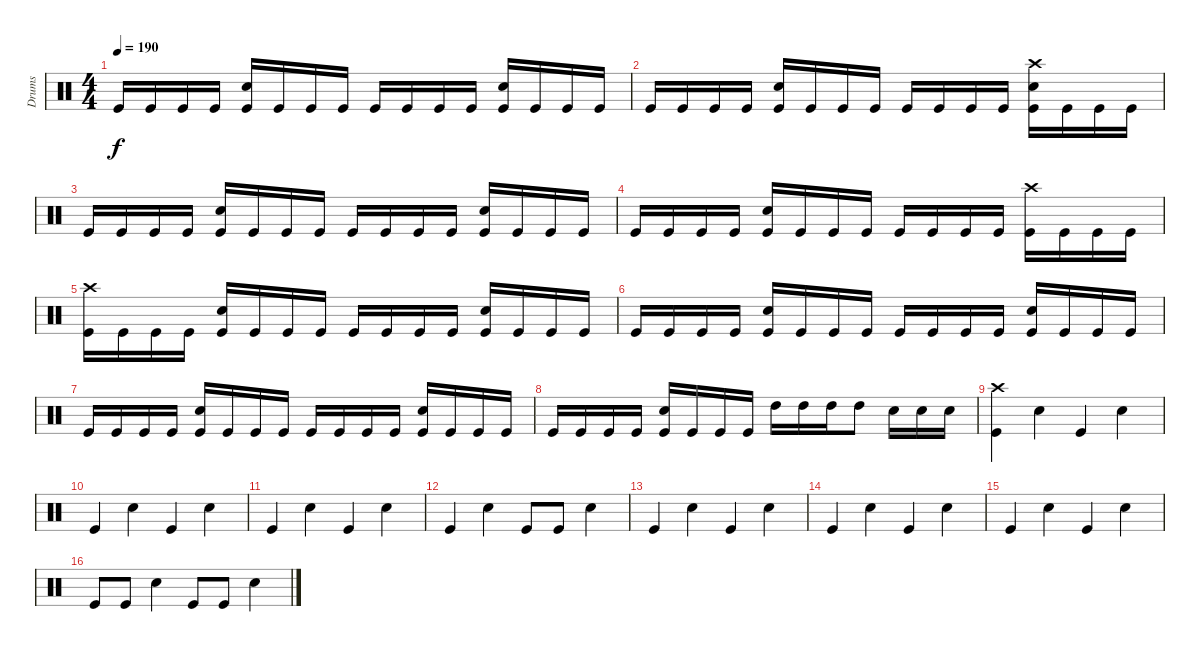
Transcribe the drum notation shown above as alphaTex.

\track ("Drums" "Drums") {instrument percussion}
\staff {score}
\articulation defaults
\ts (4 4)
\tempo 190
\clef neutral
\ks c "Kick (hit)".16{dy f} "Kick (hit)".16 "Kick (hit)".16 "Kick (hit)".16
("Snare (hit) 2" "Kick (hit)").16 "Kick (hit)".16 "Kick (hit)".16 "Kick (hit)".16 "Kick (hit)".16 "Kick (hit)".16 "Kick (hit)".16 "Kick (hit)".16 ("Snare (hit) 2" "Kick (hit)").16 "Kick (hit)".16 "Kick (hit)".16 "Kick (hit)".16 |
"Kick (hit)".16 "Kick (hit)".16 "Kick (hit)".16 "Kick (hit)".16 ("Snare (hit) 2" "Kick (hit)").16 "Kick (hit)".16 "Kick (hit)".16 "Kick (hit)".16 "Kick (hit)".16 "Kick (hit)".16 "Kick (hit)".16 "Kick (hit)".16 ("Crash high (hit)" "Snare (hit) 2" "Kick (hit)").16 "Kick (hit)".16 "Kick (hit)".16 "Kick (hit)".16 |
"Kick (hit)".16 "Kick (hit)".16 "Kick (hit)".16 "Kick (hit)".16 ("Snare (hit) 2" "Kick (hit)").16 "Kick (hit)".16 "Kick (hit)".16 "Kick (hit)".16 "Kick (hit)".16 "Kick (hit)".16 "Kick (hit)".16 "Kick (hit)".16 ("Snare (hit) 2" "Kick (hit)").16 "Kick (hit)".16 "Kick (hit)".16 "Kick (hit)".16 |
"Kick (hit)".16 "Kick (hit)".16 "Kick (hit)".16 "Kick (hit)".16 ("Snare (hit) 2" "Kick (hit)").16 "Kick (hit)".16 "Kick (hit)".16 "Kick (hit)".16 "Kick (hit)".16 "Kick (hit)".16 "Kick (hit)".16 "Kick (hit)".16 ("Crash high (hit)" "Kick (hit)").16 "Kick (hit)".16 "Kick (hit)".16 "Kick (hit)".16 |
("Crash high (hit)" "Kick (hit)").16 "Kick (hit)".16 "Kick (hit)".16 "Kick (hit)".16 ("Snare (hit) 2" "Kick (hit)").16 "Kick (hit)".16 "Kick (hit)".16 "Kick (hit)".16 "Kick (hit)".16 "Kick (hit)".16 "Kick (hit)".16 "Kick (hit)".16 ("Snare (hit) 2" "Kick (hit)").16 "Kick (hit)".16 "Kick (hit)".16 "Kick (hit)".16 |
"Kick (hit)".16 "Kick (hit)".16 "Kick (hit)".16 "Kick (hit)".16 ("Snare (hit) 2" "Kick (hit)").16 "Kick (hit)".16 "Kick (hit)".16 "Kick (hit)".16 "Kick (hit)".16 "Kick (hit)".16 "Kick (hit)".16 "Kick (hit)".16 ("Snare (hit) 2" "Kick (hit)").16 "Kick (hit)".16 "Kick (hit)".16 "Kick (hit)".16 |
"Kick (hit)".16 "Kick (hit)".16 "Kick (hit)".16 "Kick (hit)".16 ("Snare (hit) 2" "Kick (hit)").16 "Kick (hit)".16 "Kick (hit)".16 "Kick (hit)".16 "Kick (hit)".16 "Kick (hit)".16 "Kick (hit)".16 "Kick (hit)".16 ("Snare (hit) 2" "Kick (hit)").16 "Kick (hit)".16 "Kick (hit)".16 "Kick (hit)".16 |
"Kick (hit)".16 "Kick (hit)".16 "Kick (hit)".16 "Kick (hit)".16 ("Snare (hit) 2" "Kick (hit)").16 "Kick (hit)".16 "Kick (hit)".16 "Kick (hit)".16 "High Tom (hit)".16 "High Tom (hit)".16 "High Tom (hit)".16 "High Tom (hit)".8 "Snare (hit) 2".16 "Snare (hit) 2".16 "Snare (hit) 2".16 |
("Crash high (hit)" "Kick (hit)").4 "Snare (hit) 2".4 "Kick (hit)".4 "Snare (hit) 2".4 |
"Kick (hit)".4 "Snare (hit) 2".4 "Kick (hit)".4 "Snare (hit) 2".4 |
"Kick (hit)".4 "Snare (hit) 2".4 "Kick (hit)".4 "Snare (hit) 2".4 |
"Kick (hit)".4 "Snare (hit) 2".4 "Kick (hit)".8 "Kick (hit)".8 "Snare (hit) 2".4 |
"Kick (hit)".4 "Snare (hit) 2".4 "Kick (hit)".4 "Snare (hit) 2".4 |
"Kick (hit)".4 "Snare (hit) 2".4 "Kick (hit)".4 "Snare (hit) 2".4 |
"Kick (hit)".4 "Snare (hit) 2".4 "Kick (hit)".4 "Snare (hit) 2".4 |
"Kick (hit)".8 "Kick (hit)".8 "Snare (hit) 2".4 "Kick (hit)".8 "Kick (hit)".8 "Snare (hit) 2".4
